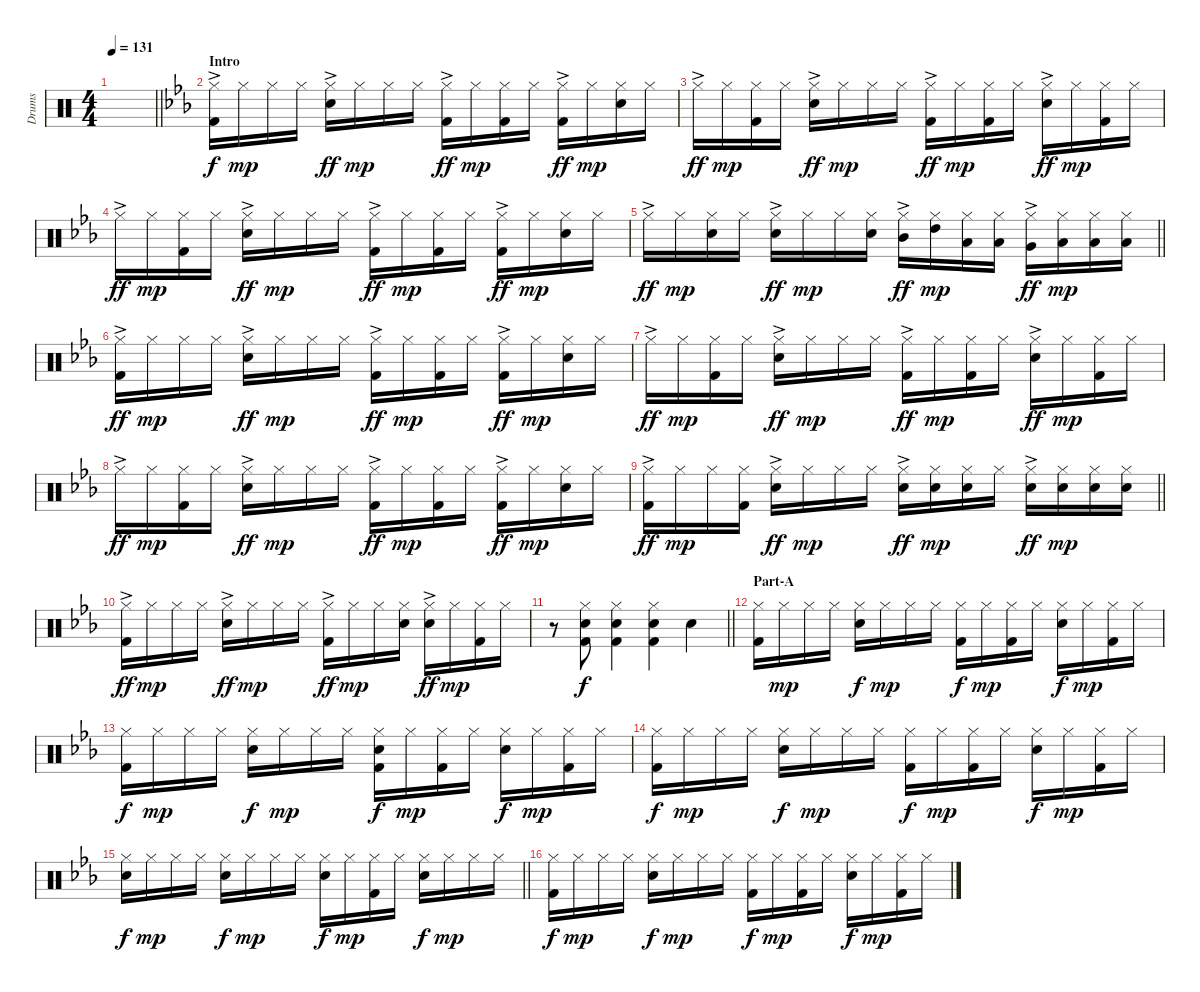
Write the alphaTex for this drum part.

\track ("Drums" "Drums") {instrument percussion}
\staff {score}
\articulation defaults
\ts (4 4)
\tempo 131
\clef neutral
\barLineRight lightlight
\ks c
|
\section ("" "Intro")
\ks eb
("Hi-Hat (closed)"{ac} "Kick (hit) 2").16 "Hi-Hat (closed)".16{dy mp} "Hi-Hat (closed)".16 "Hi-Hat (closed)".16 ("Hi-Hat (closed)"{ac} "Snare (hit) 2").16{dy ff} "Hi-Hat (closed)".16{dy mp} "Hi-Hat (closed)".16 "Hi-Hat (closed)".16 ("Hi-Hat (closed)"{ac} "Kick (hit) 2").16{dy ff} "Hi-Hat (closed)".16{dy mp} ("Hi-Hat (closed)" "Kick (hit) 2").16 "Hi-Hat (closed)".16 ("Hi-Hat (closed)"{ac} "Kick (hit) 2").16{dy ff} "Hi-Hat (closed)".16{dy mp} ("Hi-Hat (closed)" "Snare (hit) 2").16 "Hi-Hat (closed)".16 |
"Hi-Hat (closed)"{ac}.16{dy ff} "Hi-Hat (closed)".16{dy mp} ("Hi-Hat (closed)" "Kick (hit) 2").16 "Hi-Hat (closed)".16 ("Hi-Hat (closed)"{ac} "Snare (hit) 2").16{dy ff} "Hi-Hat (closed)".16{dy mp} "Hi-Hat (closed)".16 "Hi-Hat (closed)".16 ("Hi-Hat (closed)"{ac} "Kick (hit) 2").16{dy ff} "Hi-Hat (closed)".16{dy mp} ("Hi-Hat (closed)" "Kick (hit) 2").16 "Hi-Hat (closed)".16 ("Hi-Hat (closed)"{ac} "Snare (hit) 2").16{dy ff} "Hi-Hat (closed)".16{dy mp} ("Hi-Hat (closed)" "Kick (hit) 2").16 "Hi-Hat (closed)".16 |
"Hi-Hat (closed)"{ac}.16{dy ff} "Hi-Hat (closed)".16{dy mp} ("Hi-Hat (closed)" "Kick (hit) 2").16 "Hi-Hat (closed)".16 ("Hi-Hat (closed)"{ac} "Snare (hit) 2").16{dy ff} "Hi-Hat (closed)".16{dy mp} "Hi-Hat (closed)".16 "Hi-Hat (closed)".16 ("Hi-Hat (closed)"{ac} "Kick (hit) 2").16{dy ff} "Hi-Hat (closed)".16{dy mp} ("Hi-Hat (closed)" "Kick (hit) 2").16 "Hi-Hat (closed)".16 ("Hi-Hat (closed)"{ac} "Kick (hit) 2").16{dy ff} "Hi-Hat (closed)".16{dy mp} ("Hi-Hat (closed)" "Snare (hit) 2").16 "Hi-Hat (closed)".16 |
\barLineRight lightlight "Hi-Hat (closed)"{ac}.16{dy ff} "Hi-Hat (closed)".16{dy mp}
("Hi-Hat (closed)" "Snare (hit) 2").16 "Hi-Hat (closed)".16 ("Hi-Hat (closed)"{ac} "Snare (hit) 2").16{dy ff} "Hi-Hat (closed)".16{dy mp} "Hi-Hat (closed)".16 ("Hi-Hat (closed)" "Snare (hit) 2").16 ("Hi-Hat (closed)"{ac} "Mid Tom (hit)").16{dy ff} ("Hi-Hat (closed)" "High Tom (hit)").16{dy mp} ("Hi-Hat (closed)" "Low Tom (hit)").16 ("Hi-Hat (closed)" "Low Tom (hit)").16 ("Hi-Hat (closed)"{ac} "Very Low Tom (hit)").16{dy ff} ("Hi-Hat (closed)" "Low Floor Tom (hit)").16{dy mp} ("Hi-Hat (closed)" "Low Floor Tom (hit)").16 ("Hi-Hat (closed)" "Low Floor Tom (hit)").16 |
("Hi-Hat (closed)"{ac} "Kick (hit) 2").16{dy ff} "Hi-Hat (closed)".16{dy mp} "Hi-Hat (closed)".16 "Hi-Hat (closed)".16 ("Hi-Hat (closed)"{ac} "Snare (hit) 2").16{dy ff} "Hi-Hat (closed)".16{dy mp} "Hi-Hat (closed)".16 "Hi-Hat (closed)".16 ("Hi-Hat (closed)"{ac} "Kick (hit) 2").16{dy ff} "Hi-Hat (closed)".16{dy mp} ("Hi-Hat (closed)" "Kick (hit) 2").16 "Hi-Hat (closed)".16 ("Hi-Hat (closed)"{ac} "Kick (hit) 2").16{dy ff} "Hi-Hat (closed)".16{dy mp} ("Hi-Hat (closed)" "Snare (hit) 2").16 "Hi-Hat (closed)".16 |
"Hi-Hat (closed)"{ac}.16{dy ff} "Hi-Hat (closed)".16{dy mp} ("Hi-Hat (closed)" "Kick (hit) 2").16 "Hi-Hat (closed)".16 ("Hi-Hat (closed)"{ac} "Snare (hit) 2").16{dy ff} "Hi-Hat (closed)".16{dy mp} "Hi-Hat (closed)".16 "Hi-Hat (closed)".16 ("Hi-Hat (closed)"{ac} "Kick (hit) 2").16{dy ff} "Hi-Hat (closed)".16{dy mp} ("Hi-Hat (closed)" "Kick (hit) 2").16 "Hi-Hat (closed)".16 ("Hi-Hat (closed)"{ac} "Snare (hit) 2").16{dy ff} "Hi-Hat (closed)".16{dy mp} ("Hi-Hat (closed)" "Kick (hit) 2").16 "Hi-Hat (closed)".16 |
"Hi-Hat (closed)"{ac}.16{dy ff} "Hi-Hat (closed)".16{dy mp} ("Hi-Hat (closed)" "Kick (hit) 2").16 "Hi-Hat (closed)".16 ("Hi-Hat (closed)"{ac} "Snare (hit) 2").16{dy ff} "Hi-Hat (closed)".16{dy mp} "Hi-Hat (closed)".16 "Hi-Hat (closed)".16 ("Hi-Hat (closed)"{ac} "Kick (hit) 2").16{dy ff} "Hi-Hat (closed)".16{dy mp} ("Hi-Hat (closed)" "Kick (hit) 2").16 "Hi-Hat (closed)".16 ("Hi-Hat (closed)"{ac} "Kick (hit) 2").16{dy ff} "Hi-Hat (closed)".16{dy mp} ("Hi-Hat (closed)" "Snare (hit) 2").16 "Hi-Hat (closed)".16 |
\barLineRight lightlight
("Hi-Hat (closed)"{ac} "Kick (hit) 2").16{dy ff} "Hi-Hat (closed)".16{dy mp} "Hi-Hat (closed)".16 ("Hi-Hat (closed)" "Kick (hit) 2").16 ("Hi-Hat (closed)"{ac} "Snare (hit) 2").16{dy ff} "Hi-Hat (closed)".16{dy mp} "Hi-Hat (closed)".16 "Hi-Hat (closed)".16 ("Hi-Hat (closed)"{ac} "Snare (hit) 2").16{dy ff} ("Hi-Hat (closed)" "Snare (hit) 2").16{dy mp} ("Hi-Hat (closed)" "Snare (hit) 2").16 "Hi-Hat (closed)".16 ("Hi-Hat (closed)"{ac} "Snare (hit) 2").16{dy ff} ("Hi-Hat (closed)" "Snare (hit) 2").16{dy mp} ("Hi-Hat (closed)" "Snare (hit) 2").16 ("Hi-Hat (closed)" "Snare (hit) 2").16 |
("Hi-Hat (closed)"{ac} "Kick (hit) 2").16{dy ff} "Hi-Hat (closed)".16{dy mp} "Hi-Hat (closed)".16 "Hi-Hat (closed)".16 ("Hi-Hat (closed)"{ac} "Snare (hit) 2").16{dy ff} "Hi-Hat (closed)".16{dy mp} "Hi-Hat (closed)".16 "Hi-Hat (closed)".16 ("Hi-Hat (closed)"{ac} "Kick (hit) 2").16{dy ff} "Hi-Hat (closed)".16{dy mp} "Hi-Hat (closed)".16 ("Hi-Hat (closed)" "Snare (hit) 2").16 ("Hi-Hat (closed)"{ac} "Snare (hit) 2").16{dy ff} "Hi-Hat (closed)".16{dy mp} ("Hi-Hat (closed)" "Kick (hit) 2").16 "Hi-Hat (closed)".16 |
\barLineRight lightlight
r.8 ("Hi-Hat (closed)" "Snare (hit) 2" "Kick (hit) 2").8{dy f} ("Hi-Hat (closed)" "Snare (hit) 2" "Kick (hit) 2").4 ("Hi-Hat (closed)" "Snare (hit) 2" "Kick (hit) 2").4 "Snare (hit) 2".4 |
\section ("" "Part-A")
("Hi-Hat (closed)" "Kick (hit) 2").16 "Hi-Hat (closed)".16{dy mp} "Hi-Hat (closed)".16 "Hi-Hat (closed)".16 ("Hi-Hat (closed)" "Snare (hit) 2").16{dy f} "Hi-Hat (closed)".16{dy mp} "Hi-Hat (closed)".16 "Hi-Hat (closed)".16 ("Hi-Hat (closed)" "Kick (hit) 2").16{dy f} "Hi-Hat (closed)".16{dy mp} ("Hi-Hat (closed)" "Kick (hit) 2").16 "Hi-Hat (closed)".16 ("Hi-Hat (closed)" "Snare (hit) 2").16{dy f} "Hi-Hat (closed)".16{dy mp} ("Hi-Hat (closed)" "Kick (hit) 2").16 "Hi-Hat (closed)".16 |
("Hi-Hat (closed)" "Kick (hit) 2").16{dy f} "Hi-Hat (closed)".16{dy mp} "Hi-Hat (closed)".16 "Hi-Hat (closed)".16 ("Hi-Hat (closed)" "Snare (hit) 2").16{dy f} "Hi-Hat (closed)".16{dy mp} "Hi-Hat (closed)".16 "Hi-Hat (closed)".16 ("Hi-Hat (closed)" "Snare (hit) 2" "Kick (hit) 2").16{dy f} "Hi-Hat (closed)".16{dy mp} ("Hi-Hat (closed)" "Kick (hit) 2").16 "Hi-Hat (closed)".16 ("Hi-Hat (closed)" "Snare (hit) 2").16{dy f} "Hi-Hat (closed)".16{dy mp} ("Hi-Hat (closed)" "Kick (hit) 2").16 "Hi-Hat (closed)".16 |
("Hi-Hat (closed)" "Kick (hit) 2").16{dy f} "Hi-Hat (closed)".16{dy mp} "Hi-Hat (closed)".16 "Hi-Hat (closed)".16 ("Hi-Hat (closed)" "Snare (hit) 2").16{dy f} "Hi-Hat (closed)".16{dy mp} "Hi-Hat (closed)".16 "Hi-Hat (closed)".16 ("Hi-Hat (closed)" "Kick (hit) 2").16{dy f} "Hi-Hat (closed)".16{dy mp} ("Hi-Hat (closed)" "Kick (hit) 2").16 "Hi-Hat (closed)".16 ("Hi-Hat (closed)" "Snare (hit) 2").16{dy f} "Hi-Hat (closed)".16{dy mp} ("Hi-Hat (closed)" "Kick (hit) 2").16 "Hi-Hat (closed)".16 |
\barLineRight lightlight
("Hi-Hat (closed)" "Snare (hit) 2").16{dy f} "Hi-Hat (closed)".16{dy mp} "Hi-Hat (closed)".16 "Hi-Hat (closed)".16 ("Hi-Hat (closed)" "Snare (hit) 2").16{dy f} "Hi-Hat (closed)".16{dy mp} "Hi-Hat (closed)".16 "Hi-Hat (closed)".16 ("Hi-Hat (closed)" "Snare (hit) 2").16{dy f} "Hi-Hat (closed)".16{dy mp} ("Hi-Hat (closed)" "Kick (hit) 2").16 "Hi-Hat (closed)".16 ("Hi-Hat (closed)" "Snare (hit) 2").16{dy f} "Hi-Hat (closed)".16{dy mp} "Hi-Hat (closed)".16 "Hi-Hat (closed)".16 |
("Hi-Hat (closed)" "Kick (hit) 2").16{dy f} "Hi-Hat (closed)".16{dy mp} "Hi-Hat (closed)".16 "Hi-Hat (closed)".16 ("Hi-Hat (closed)" "Snare (hit) 2").16{dy f} "Hi-Hat (closed)".16{dy mp} "Hi-Hat (closed)".16 "Hi-Hat (closed)".16 ("Hi-Hat (closed)" "Kick (hit) 2").16{dy f} "Hi-Hat (closed)".16{dy mp} ("Hi-Hat (closed)" "Kick (hit) 2").16 "Hi-Hat (closed)".16 ("Hi-Hat (closed)" "Snare (hit) 2").16{dy f} "Hi-Hat (closed)".16{dy mp} ("Hi-Hat (closed)" "Kick (hit) 2").16 "Hi-Hat (closed)".16
